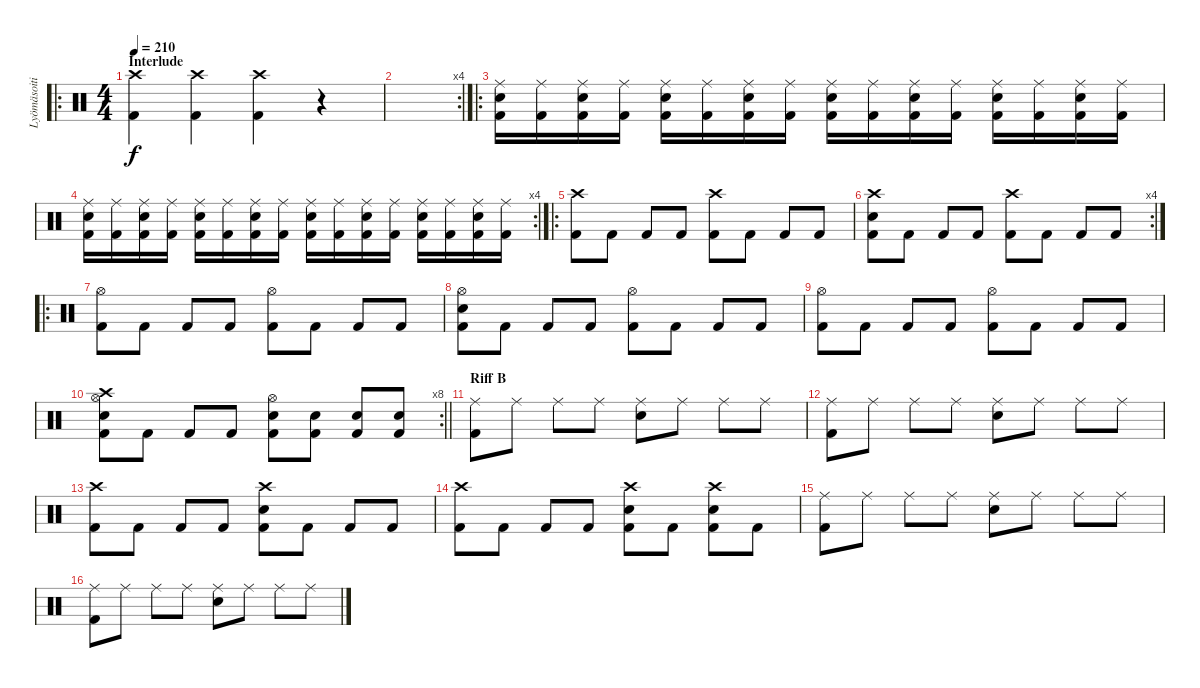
\track ("Lyömäsoitin" "Lyömäsoiti") {instrument percussion}
\staff {score}
\articulation defaults
\ro
\ts (4 4)
\section ("" "Interlude")
\tempo 210
\clef neutral
\ks c
("Crash high (hit)" "Kick (hit) 2").4{dy f} ("Crash high (hit)" "Kick (hit) 2").4 ("Crash high (hit)" "Kick (hit) 2").4 r.4 |
\rc 4
|
\ro
("Ride (middle)" "Electric Snare (hit)" "Kick (hit) 2").16 ("Ride (middle)" "Kick (hit) 2").16 ("Ride (middle)" "Electric Snare (hit)" "Kick (hit) 2").16 ("Ride (middle)" "Kick (hit) 2").16 ("Ride (middle)" "Electric Snare (hit)" "Kick (hit) 2").16 ("Ride (middle)" "Kick (hit) 2").16 ("Ride (middle)" "Electric Snare (hit)" "Kick (hit) 2").16 ("Ride (middle)" "Kick (hit) 2").16 ("Ride (middle)" "Electric Snare (hit)" "Kick (hit) 2").16 ("Ride (middle)" "Kick (hit) 2").16 ("Ride (middle)" "Electric Snare (hit)" "Kick (hit) 2").16 ("Ride (middle)" "Kick (hit) 2").16 ("Ride (middle)" "Electric Snare (hit)" "Kick (hit) 2").16 ("Ride (middle)" "Kick (hit) 2").16 ("Ride (middle)" "Electric Snare (hit)" "Kick (hit) 2").16 ("Ride (middle)" "Kick (hit) 2").16 |
\rc 4
("Ride (middle)" "Electric Snare (hit)" "Kick (hit) 2").16 ("Ride (middle)" "Kick (hit) 2").16 ("Ride (middle)" "Electric Snare (hit)" "Kick (hit) 2").16 ("Ride (middle)" "Kick (hit) 2").16 ("Ride (middle)" "Electric Snare (hit)" "Kick (hit) 2").16 ("Ride (middle)" "Kick (hit) 2").16 ("Ride (middle)" "Electric Snare (hit)" "Kick (hit) 2").16 ("Ride (middle)" "Kick (hit) 2").16 ("Ride (middle)" "Electric Snare (hit)" "Kick (hit) 2").16 ("Ride (middle)" "Kick (hit) 2").16 ("Ride (middle)" "Electric Snare (hit)" "Kick (hit) 2").16 ("Ride (middle)" "Kick (hit) 2").16 ("Ride (middle)" "Electric Snare (hit)" "Kick (hit) 2").16 ("Ride (middle)" "Kick (hit) 2").16 ("Ride (middle)" "Electric Snare (hit)" "Kick (hit) 2").16 ("Ride (middle)" "Kick (hit) 2").16 |
\ro
("Crash high (hit)" "Kick (hit) 2").8 "Kick (hit) 2".8 "Kick (hit) 2".8 "Kick (hit) 2".8 ("Crash high (hit)" "Kick (hit) 2").8 "Kick (hit) 2".8 "Kick (hit) 2".8 "Kick (hit) 2".8 |
\rc 4
("Crash high (hit)" "Electric Snare (hit)" "Kick (hit) 2").8 "Kick (hit) 2".8 "Kick (hit) 2".8 "Kick (hit) 2".8 ("Crash high (hit)" "Kick (hit) 2").8 "Kick (hit) 2".8 "Kick (hit) 2".8 "Kick (hit) 2".8 |
\ro
("Hi-Hat (open)" "Kick (hit) 2").8 "Kick (hit) 2".8 "Kick (hit) 2".8 "Kick (hit) 2".8 ("Hi-Hat (open)" "Kick (hit) 2").8 "Kick (hit) 2".8 "Kick (hit) 2".8 "Kick (hit) 2".8 |
("Hi-Hat (open)" "Electric Snare (hit)" "Kick (hit) 2").8 "Kick (hit) 2".8 "Kick (hit) 2".8 "Kick (hit) 2".8 ("Hi-Hat (open)" "Kick (hit) 2").8 "Kick (hit) 2".8 "Kick (hit) 2".8 "Kick (hit) 2".8 |
("Hi-Hat (open)" "Kick (hit) 2").8 "Kick (hit) 2".8 "Kick (hit) 2".8 "Kick (hit) 2".8 ("Hi-Hat (open)" "Kick (hit) 2").8 "Kick (hit) 2".8 "Kick (hit) 2".8 "Kick (hit) 2".8 |
\rc 8
\barLineRight lightlight
("Crash high (hit)" "Hi-Hat (open)" "Electric Snare (hit)" "Kick (hit) 2").8 "Kick (hit) 2".8 "Kick (hit) 2".8 "Kick (hit) 2".8 ("Hi-Hat (open)" "Electric Snare (hit)" "Kick (hit) 2").8 ("Electric Snare (hit)" "Kick (hit) 2").8 ("Electric Snare (hit)" "Kick (hit) 2").8 ("Electric Snare (hit)" "Kick (hit) 2").8 |
\section ("" "Riff B")
("Ride (middle)" "Kick (hit) 2").8 "Ride (middle)".8 "Ride (middle)".8 "Ride (middle)".8 ("Ride (middle)" "Electric Snare (hit)").8 "Ride (middle)".8 "Ride (middle)".8 "Ride (middle)".8 |
("Ride (middle)" "Kick (hit) 2").8 "Ride (middle)".8 "Ride (middle)".8 "Ride (middle)".8 ("Ride (middle)" "Electric Snare (hit)").8 "Ride (middle)".8 "Ride (middle)".8 "Ride (middle)".8 |
("Crash high (hit)" "Kick (hit) 2").8 "Kick (hit) 2".8 "Kick (hit) 2".8 "Kick (hit) 2".8 ("Crash high (hit)" "Electric Snare (hit)" "Kick (hit) 2").8 "Kick (hit) 2".8 "Kick (hit) 2".8 "Kick (hit) 2".8 |
("Crash high (hit)" "Kick (hit) 2").8 "Kick (hit) 2".8 "Kick (hit) 2".8 "Kick (hit) 2".8 ("Crash high (hit)" "Electric Snare (hit)" "Kick (hit) 2").8 "Kick (hit) 2".8 ("Crash high (hit)" "Electric Snare (hit)" "Kick (hit) 2").8 "Kick (hit) 2".8 |
("Ride (middle)" "Kick (hit) 2").8 "Ride (middle)".8 "Ride (middle)".8 "Ride (middle)".8 ("Ride (middle)" "Electric Snare (hit)").8 "Ride (middle)".8 "Ride (middle)".8 "Ride (middle)".8 |
("Ride (middle)" "Kick (hit) 2").8 "Ride (middle)".8 "Ride (middle)".8 "Ride (middle)".8 ("Ride (middle)" "Electric Snare (hit)").8 "Ride (middle)".8 "Ride (middle)".8 "Ride (middle)".8
